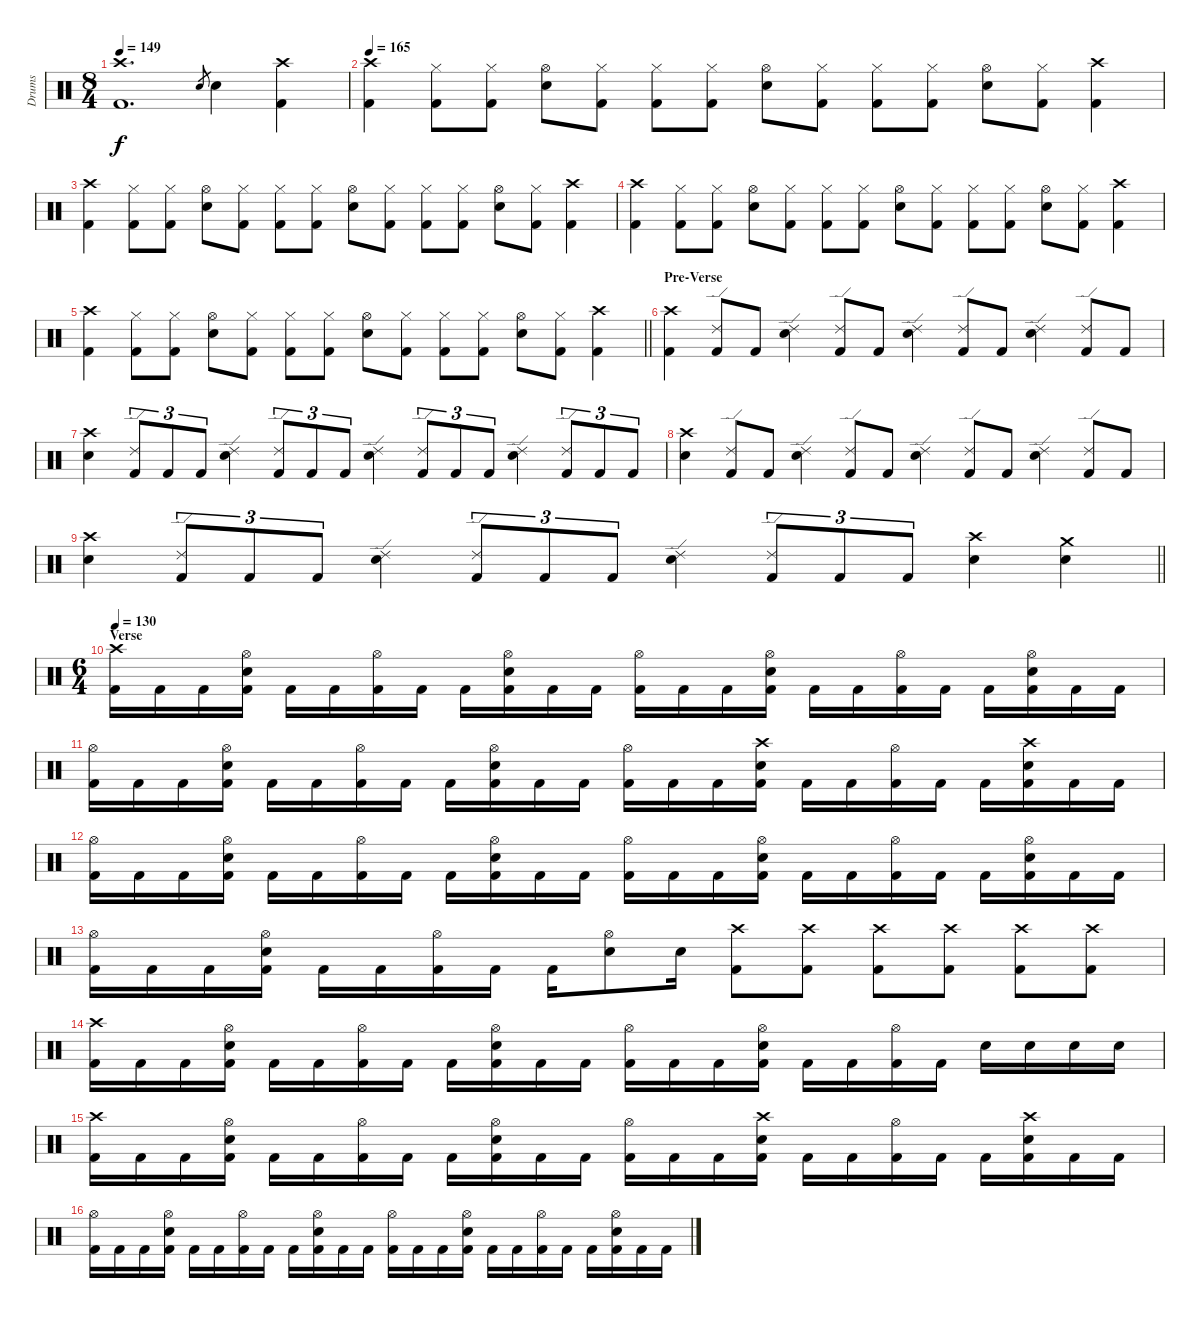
\track ("Drums" "Drums") {instrument percussion}
\staff {score}
\articulation defaults
\ts (8 4)
\tempo 149
\clef neutral
\ks c
("Crash high (hit)" "Kick (hit) 2").1{d dy f} "Snare (hit) 2".8{gr} "Snare (hit) 2".4 ("Crash high (hit)" "Kick (hit) 2").4 |
\tempo 165
("Crash high (hit)" "Kick (hit) 2").4 ("Hi-Hat (closed)" "Kick (hit) 2").8 ("Hi-Hat (closed)" "Kick (hit) 2").8 ("Hi-Hat (open)" "Snare (hit) 2").8 ("Hi-Hat (closed)" "Kick (hit) 2").8 ("Hi-Hat (closed)" "Kick (hit) 2").8 ("Hi-Hat (closed)" "Kick (hit) 2").8 ("Hi-Hat (open)" "Snare (hit) 2").8 ("Hi-Hat (closed)" "Kick (hit) 2").8 ("Hi-Hat (closed)" "Kick (hit) 2").8 ("Hi-Hat (closed)" "Kick (hit) 2").8 ("Hi-Hat (open)" "Snare (hit) 2").8 ("Hi-Hat (closed)" "Kick (hit) 2").8 ("Crash high (hit)" "Kick (hit) 2").4 |
("Crash high (hit)" "Kick (hit) 2").4 ("Hi-Hat (closed)" "Kick (hit) 2").8 ("Hi-Hat (closed)" "Kick (hit) 2").8 ("Hi-Hat (open)" "Snare (hit) 2").8 ("Hi-Hat (closed)" "Kick (hit) 2").8 ("Hi-Hat (closed)" "Kick (hit) 2").8 ("Hi-Hat (closed)" "Kick (hit) 2").8 ("Hi-Hat (open)" "Snare (hit) 2").8 ("Hi-Hat (closed)" "Kick (hit) 2").8 ("Hi-Hat (closed)" "Kick (hit) 2").8 ("Hi-Hat (closed)" "Kick (hit) 2").8 ("Hi-Hat (open)" "Snare (hit) 2").8 ("Hi-Hat (closed)" "Kick (hit) 2").8 ("Crash high (hit)" "Kick (hit) 2").4 |
("Crash high (hit)" "Kick (hit) 2").4 ("Hi-Hat (closed)" "Kick (hit) 2").8 ("Hi-Hat (closed)" "Kick (hit) 2").8 ("Hi-Hat (open)" "Snare (hit) 2").8 ("Hi-Hat (closed)" "Kick (hit) 2").8 ("Hi-Hat (closed)" "Kick (hit) 2").8 ("Hi-Hat (closed)" "Kick (hit) 2").8 ("Hi-Hat (open)" "Snare (hit) 2").8 ("Hi-Hat (closed)" "Kick (hit) 2").8 ("Hi-Hat (closed)" "Kick (hit) 2").8 ("Hi-Hat (closed)" "Kick (hit) 2").8 ("Hi-Hat (open)" "Snare (hit) 2").8 ("Hi-Hat (closed)" "Kick (hit) 2").8 ("Crash high (hit)" "Kick (hit) 2").4 |
\barLineRight lightlight
("Crash high (hit)" "Kick (hit) 2").4 ("Hi-Hat (closed)" "Kick (hit) 2").8 ("Hi-Hat (closed)" "Kick (hit) 2").8 ("Hi-Hat (open)" "Snare (hit) 2").8 ("Hi-Hat (closed)" "Kick (hit) 2").8 ("Hi-Hat (closed)" "Kick (hit) 2").8 ("Hi-Hat (closed)" "Kick (hit) 2").8 ("Hi-Hat (open)" "Snare (hit) 2").8 ("Hi-Hat (closed)" "Kick (hit) 2").8 ("Hi-Hat (closed)" "Kick (hit) 2").8 ("Hi-Hat (closed)" "Kick (hit) 2").8 ("Hi-Hat (open)" "Snare (hit) 2").8 ("Hi-Hat (closed)" "Kick (hit) 2").8 ("Crash high (hit)" "Kick (hit) 2").4 |
\section ("" "Pre-Verse")
("Crash high (hit)" "Kick (hit) 2").4 ("Ride (edge) 2" "Kick (hit) 2").8 "Kick (hit) 2".8 ("Ride (edge) 2" "Snare (hit) 2").4 ("Ride (edge) 2" "Kick (hit) 2").8 "Kick (hit) 2".8 ("Ride (edge) 2" "Snare (hit) 2").4 ("Ride (edge) 2" "Kick (hit) 2").8 "Kick (hit) 2".8 ("Ride (edge) 2" "Snare (hit) 2").4 ("Ride (edge) 2" "Kick (hit) 2").8 "Kick (hit) 2".8 |
("Crash high (hit)" "Snare (hit) 2").4 ("Ride (edge) 2" "Kick (hit) 2").8{tu (3 2)} "Kick (hit) 2".8{tu (3 2)} "Kick (hit) 2".8{tu (3 2)} ("Ride (edge) 2" "Snare (hit) 2").4 ("Ride (edge) 2" "Kick (hit) 2").8{tu (3 2)} "Kick (hit) 2".8{tu (3 2)} "Kick (hit) 2".8{tu (3 2)} ("Ride (edge) 2" "Snare (hit) 2").4 ("Ride (edge) 2" "Kick (hit) 2").8{tu (3 2)} "Kick (hit) 2".8{tu (3 2)} "Kick (hit) 2".8{tu (3 2)} ("Ride (edge) 2" "Snare (hit) 2").4 ("Ride (edge) 2" "Kick (hit) 2").8{tu (3 2)} "Kick (hit) 2".8{tu (3 2)} "Kick (hit) 2".8{tu (3 2)} |
("Crash high (hit)" "Snare (hit) 2").4 ("Ride (edge) 2" "Kick (hit) 2").8 "Kick (hit) 2".8 ("Ride (edge) 2" "Snare (hit) 2").4 ("Ride (edge) 2" "Kick (hit) 2").8 "Kick (hit) 2".8 ("Ride (edge) 2" "Snare (hit) 2").4 ("Ride (edge) 2" "Kick (hit) 2").8 "Kick (hit) 2".8 ("Ride (edge) 2" "Snare (hit) 2").4 ("Ride (edge) 2" "Kick (hit) 2").8 "Kick (hit) 2".8 |
\barLineRight lightlight
("Crash high (hit)" "Snare (hit) 2").4 ("Ride (edge) 2" "Kick (hit) 2").8{tu (3 2)} "Kick (hit) 2".8{tu (3 2)} "Kick (hit) 2".8{tu (3 2)} ("Ride (edge) 2" "Snare (hit) 2").4 ("Ride (edge) 2" "Kick (hit) 2").8{tu (3 2)} "Kick (hit) 2".8{tu (3 2)} "Kick (hit) 2".8{tu (3 2)} ("Ride (edge) 2" "Snare (hit) 2").4 ("Ride (edge) 2" "Kick (hit) 2").8{tu (3 2)} "Kick (hit) 2".8{tu (3 2)} "Kick (hit) 2".8{tu (3 2)} ("Crash high (hit)" "Snare (hit) 2").4 ("Crash medium (hit)" "Snare (hit) 2").4 |
\ts (6 4)
\section ("" "Verse")
\tempo 130
("Crash high (hit)" "Kick (hit) 2").16 "Kick (hit) 2".16 "Kick (hit) 2".16 ("Hi-Hat (open)" "Snare (hit) 2" "Kick (hit) 2").16 "Kick (hit) 2".16 "Kick (hit) 2".16 ("Hi-Hat (open)" "Kick (hit) 2").16 "Kick (hit) 2".16 "Kick (hit) 2".16 ("Hi-Hat (open)" "Snare (hit) 2" "Kick (hit) 2").16 "Kick (hit) 2".16 "Kick (hit) 2".16 ("Hi-Hat (open)" "Kick (hit) 2").16 "Kick (hit) 2".16 "Kick (hit) 2".16 ("Hi-Hat (open)" "Snare (hit) 2" "Kick (hit) 2").16 "Kick (hit) 2".16 "Kick (hit) 2".16 ("Hi-Hat (open)" "Kick (hit) 2").16 "Kick (hit) 2".16 "Kick (hit) 2".16 ("Hi-Hat (open)" "Snare (hit) 2" "Kick (hit) 2").16 "Kick (hit) 2".16 "Kick (hit) 2".16 |
("Hi-Hat (open)" "Kick (hit) 2").16 "Kick (hit) 2".16 "Kick (hit) 2".16 ("Hi-Hat (open)" "Snare (hit) 2" "Kick (hit) 2").16 "Kick (hit) 2".16 "Kick (hit) 2".16 ("Hi-Hat (open)" "Kick (hit) 2").16 "Kick (hit) 2".16 "Kick (hit) 2".16 ("Hi-Hat (open)" "Snare (hit) 2" "Kick (hit) 2").16 "Kick (hit) 2".16 "Kick (hit) 2".16 ("Hi-Hat (open)" "Kick (hit) 2").16 "Kick (hit) 2".16 "Kick (hit) 2".16 ("Crash high (hit)" "Snare (hit) 2" "Kick (hit) 2").16 "Kick (hit) 2".16 "Kick (hit) 2".16 ("Hi-Hat (open)" "Kick (hit) 2").16 "Kick (hit) 2".16 "Kick (hit) 2".16 ("Crash high (hit)" "Snare (hit) 2" "Kick (hit) 2").16 "Kick (hit) 2".16 "Kick (hit) 2".16 |
("Hi-Hat (open)" "Kick (hit) 2").16 "Kick (hit) 2".16 "Kick (hit) 2".16 ("Hi-Hat (open)" "Snare (hit) 2" "Kick (hit) 2").16 "Kick (hit) 2".16 "Kick (hit) 2".16 ("Hi-Hat (open)" "Kick (hit) 2").16 "Kick (hit) 2".16 "Kick (hit) 2".16 ("Hi-Hat (open)" "Snare (hit) 2" "Kick (hit) 2").16 "Kick (hit) 2".16 "Kick (hit) 2".16 ("Hi-Hat (open)" "Kick (hit) 2").16 "Kick (hit) 2".16 "Kick (hit) 2".16 ("Hi-Hat (open)" "Snare (hit) 2" "Kick (hit) 2").16 "Kick (hit) 2".16 "Kick (hit) 2".16 ("Hi-Hat (open)" "Kick (hit) 2").16 "Kick (hit) 2".16 "Kick (hit) 2".16 ("Hi-Hat (open)" "Snare (hit) 2" "Kick (hit) 2").16 "Kick (hit) 2".16 "Kick (hit) 2".16 |
("Hi-Hat (open)" "Kick (hit) 2").16 "Kick (hit) 2".16 "Kick (hit) 2".16 ("Hi-Hat (open)" "Snare (hit) 2" "Kick (hit) 2").16 "Kick (hit) 2".16 "Kick (hit) 2".16 ("Hi-Hat (open)" "Kick (hit) 2").16 "Kick (hit) 2".16 "Kick (hit) 2".16 ("Hi-Hat (open)" "Snare (hit) 2").8 "Snare (hit) 2".16 ("Crash high (hit)" "Kick (hit) 2").8 ("Crash high (hit)" "Kick (hit) 2").8 ("Crash high (hit)" "Kick (hit) 2").8 ("Crash high (hit)" "Kick (hit) 2").8 ("Crash high (hit)" "Kick (hit) 2").8 ("Crash high (hit)" "Kick (hit) 2").8 |
("Crash high (hit)" "Kick (hit) 2").16 "Kick (hit) 2".16 "Kick (hit) 2".16 ("Hi-Hat (open)" "Snare (hit) 2" "Kick (hit) 2").16 "Kick (hit) 2".16 "Kick (hit) 2".16 ("Hi-Hat (open)" "Kick (hit) 2").16 "Kick (hit) 2".16 "Kick (hit) 2".16 ("Hi-Hat (open)" "Snare (hit) 2" "Kick (hit) 2").16 "Kick (hit) 2".16 "Kick (hit) 2".16 ("Hi-Hat (open)" "Kick (hit) 2").16 "Kick (hit) 2".16 "Kick (hit) 2".16 ("Hi-Hat (open)" "Snare (hit) 2" "Kick (hit) 2").16 "Kick (hit) 2".16 "Kick (hit) 2".16 ("Hi-Hat (open)" "Kick (hit) 2").16 "Kick (hit) 2".16 "Snare (hit) 2".16 "Snare (hit) 2".16 "Snare (hit) 2".16 "Snare (hit) 2".16 |
("Crash high (hit)" "Kick (hit) 2").16 "Kick (hit) 2".16 "Kick (hit) 2".16 ("Hi-Hat (open)" "Snare (hit) 2" "Kick (hit) 2").16 "Kick (hit) 2".16 "Kick (hit) 2".16 ("Hi-Hat (open)" "Kick (hit) 2").16 "Kick (hit) 2".16 "Kick (hit) 2".16 ("Hi-Hat (open)" "Snare (hit) 2" "Kick (hit) 2").16 "Kick (hit) 2".16 "Kick (hit) 2".16 ("Hi-Hat (open)" "Kick (hit) 2").16 "Kick (hit) 2".16 "Kick (hit) 2".16 ("Crash high (hit)" "Snare (hit) 2" "Kick (hit) 2").16 "Kick (hit) 2".16 "Kick (hit) 2".16 ("Hi-Hat (open)" "Kick (hit) 2").16 "Kick (hit) 2".16 "Kick (hit) 2".16 ("Crash high (hit)" "Snare (hit) 2" "Kick (hit) 2").16 "Kick (hit) 2".16 "Kick (hit) 2".16 |
("Hi-Hat (open)" "Kick (hit) 2").16 "Kick (hit) 2".16 "Kick (hit) 2".16 ("Hi-Hat (open)" "Snare (hit) 2" "Kick (hit) 2").16 "Kick (hit) 2".16 "Kick (hit) 2".16 ("Hi-Hat (open)" "Kick (hit) 2").16 "Kick (hit) 2".16 "Kick (hit) 2".16 ("Hi-Hat (open)" "Snare (hit) 2" "Kick (hit) 2").16 "Kick (hit) 2".16 "Kick (hit) 2".16 ("Hi-Hat (open)" "Kick (hit) 2").16 "Kick (hit) 2".16 "Kick (hit) 2".16 ("Hi-Hat (open)" "Snare (hit) 2" "Kick (hit) 2").16 "Kick (hit) 2".16 "Kick (hit) 2".16 ("Hi-Hat (open)" "Kick (hit) 2").16 "Kick (hit) 2".16 "Kick (hit) 2".16 ("Hi-Hat (open)" "Snare (hit) 2" "Kick (hit) 2").16 "Kick (hit) 2".16 "Kick (hit) 2".16
